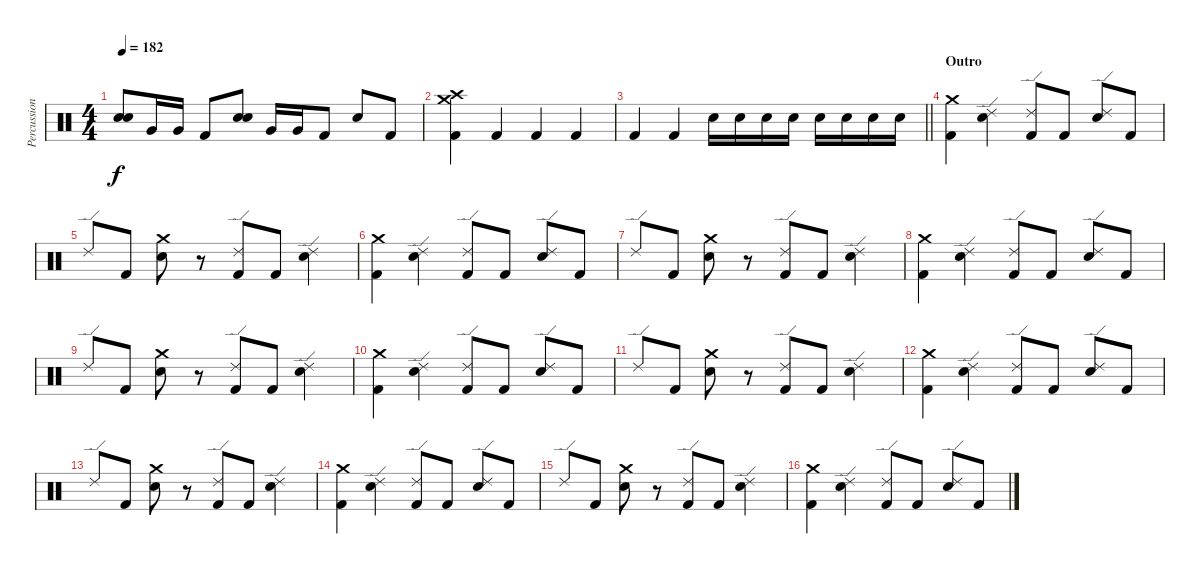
\track ("Percussion" "Percussion") {instrument percussion}
\staff {score}
\articulation defaults
\ts (4 4)
\tempo 182
\clef neutral
\ks c
("Electric Snare (hit)" "Electric Snare (hit)").8{dy f} "Very Low Tom (hit)".16 "Very Low Tom (hit)".16 "Kick (hit) 2".8 ("Electric Snare (hit)" "Electric Snare (hit)").8 "Very Low Tom (hit)".16 "Very Low Tom (hit)".16 "Kick (hit) 2".8 "Electric Snare (hit)".8 "Kick (hit) 2".8 |
("Crash medium (hit)" "Crash high (hit)" "Kick (hit) 2").4 "Kick (hit) 2".4 "Kick (hit) 2".4 "Kick (hit) 2".4 |
\barLineRight lightlight "Kick (hit) 2".4 "Kick (hit) 2".4 "Electric Snare (hit)".16 "Electric Snare (hit)".16 "Electric Snare (hit)".16 "Electric Snare (hit)".16 "Electric Snare (hit)".16 "Electric Snare (hit)".16 "Electric Snare (hit)".16 "Electric Snare (hit)".16
|
\section ("" "Outro")
("Crash medium (hit)" "Kick (hit) 2").4 ("Ride (edge) 2" "Electric Snare (hit)").4 ("Ride (edge) 2" "Kick (hit) 2").8 "Kick (hit) 2".8 ("Ride (edge) 2" "Electric Snare (hit)").8 "Kick (hit) 2".8 |
"Ride (edge) 2".8 "Kick (hit) 2".8 ("Crash medium (hit)" "Electric Snare (hit)").8 r.8 ("Ride (edge) 2" "Kick (hit) 2").8 "Kick (hit) 2".8 ("Ride (edge) 2" "Electric Snare (hit)").4 |
("Crash medium (hit)" "Kick (hit) 2").4 ("Ride (edge) 2" "Electric Snare (hit)").4 ("Ride (edge) 2" "Kick (hit) 2").8 "Kick (hit) 2".8 ("Ride (edge) 2" "Electric Snare (hit)").8 "Kick (hit) 2".8 |
"Ride (edge) 2".8 "Kick (hit) 2".8 ("Crash medium (hit)" "Electric Snare (hit)").8 r.8 ("Ride (edge) 2" "Kick (hit) 2").8 "Kick (hit) 2".8 ("Ride (edge) 2" "Electric Snare (hit)").4 |
("Crash medium (hit)" "Kick (hit) 2").4 ("Ride (edge) 2" "Electric Snare (hit)").4 ("Ride (edge) 2" "Kick (hit) 2").8 "Kick (hit) 2".8 ("Ride (edge) 2" "Electric Snare (hit)").8 "Kick (hit) 2".8 |
"Ride (edge) 2".8 "Kick (hit) 2".8 ("Crash medium (hit)" "Electric Snare (hit)").8 r.8 ("Ride (edge) 2" "Kick (hit) 2").8 "Kick (hit) 2".8 ("Ride (edge) 2" "Electric Snare (hit)").4 |
("Crash medium (hit)" "Kick (hit) 2").4 ("Ride (edge) 2" "Electric Snare (hit)").4 ("Ride (edge) 2" "Kick (hit) 2").8 "Kick (hit) 2".8 ("Ride (edge) 2" "Electric Snare (hit)").8 "Kick (hit) 2".8 |
"Ride (edge) 2".8 "Kick (hit) 2".8 ("Crash medium (hit)" "Electric Snare (hit)").8 r.8 ("Ride (edge) 2" "Kick (hit) 2").8 "Kick (hit) 2".8 ("Ride (edge) 2" "Electric Snare (hit)").4 |
("Crash medium (hit)" "Kick (hit) 2").4 ("Ride (edge) 2" "Electric Snare (hit)").4 ("Ride (edge) 2" "Kick (hit) 2").8 "Kick (hit) 2".8 ("Ride (edge) 2" "Electric Snare (hit)").8 "Kick (hit) 2".8 |
"Ride (edge) 2".8 "Kick (hit) 2".8 ("Crash medium (hit)" "Electric Snare (hit)").8 r.8 ("Ride (edge) 2" "Kick (hit) 2").8 "Kick (hit) 2".8 ("Ride (edge) 2" "Electric Snare (hit)").4 |
("Crash medium (hit)" "Kick (hit) 2").4 ("Ride (edge) 2" "Electric Snare (hit)").4 ("Ride (edge) 2" "Kick (hit) 2").8 "Kick (hit) 2".8 ("Ride (edge) 2" "Electric Snare (hit)").8 "Kick (hit) 2".8 |
"Ride (edge) 2".8 "Kick (hit) 2".8 ("Crash medium (hit)" "Electric Snare (hit)").8 r.8 ("Ride (edge) 2" "Kick (hit) 2").8 "Kick (hit) 2".8 ("Ride (edge) 2" "Electric Snare (hit)").4 |
("Crash medium (hit)" "Kick (hit) 2").4 ("Ride (edge) 2" "Electric Snare (hit)").4 ("Ride (edge) 2" "Kick (hit) 2").8 "Kick (hit) 2".8 ("Ride (edge) 2" "Electric Snare (hit)").8 "Kick (hit) 2".8
